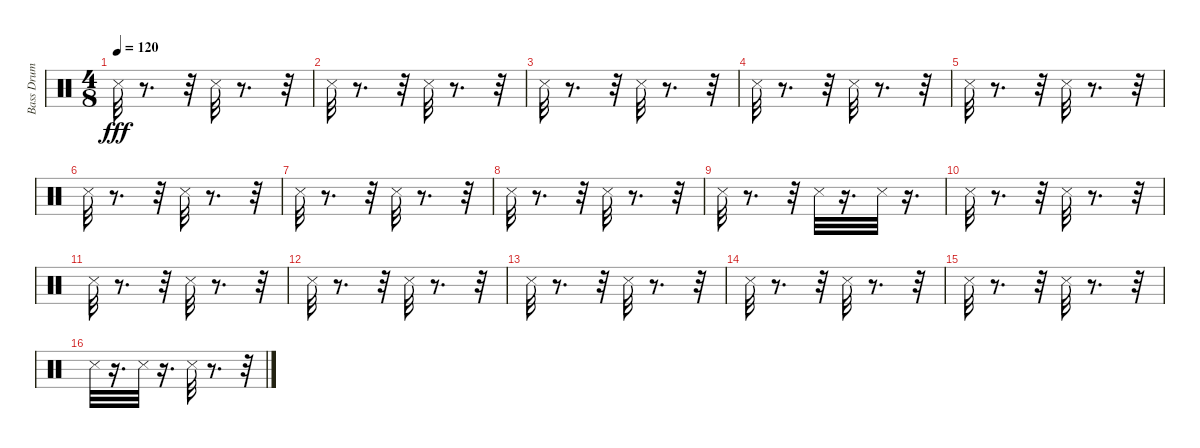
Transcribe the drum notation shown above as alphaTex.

\track ("Bass Drum" "Bass Drum") {instrument percussion}
\staff {score}
\articulation defaults
\ts (4 8)
\tempo 120
\clef neutral
\ks c "Metronome (hit)".32{dy fff}
r.8{d} r.32 "Metronome (hit)".32 r.8{d} r.32 |
"Metronome (hit)".32 r.8{d} r.32 "Metronome (hit)".32 r.8{d} r.32 |
"Metronome (hit)".32 r.8{d} r.32 "Metronome (hit)".32 r.8{d} r.32 |
"Metronome (hit)".32 r.8{d} r.32 "Metronome (hit)".32 r.8{d} r.32 |
"Metronome (hit)".32 r.8{d} r.32 "Metronome (hit)".32 r.8{d} r.32 |
"Metronome (hit)".32 r.8{d} r.32 "Metronome (hit)".32 r.8{d} r.32 |
"Metronome (hit)".32 r.8{d} r.32 "Metronome (hit)".32 r.8{d} r.32 |
"Metronome (hit)".32 r.8{d} r.32 "Metronome (hit)".32 r.8{d} r.32 |
"Metronome (hit)".32 r.8{d} r.32 "Metronome (hit)".32 r.16{d} "Metronome (hit)".32 r.16{d} |
"Metronome (hit)".32 r.8{d} r.32 "Metronome (hit)".32 r.8{d} r.32 |
"Metronome (hit)".32 r.8{d} r.32 "Metronome (hit)".32 r.8{d} r.32 |
"Metronome (hit)".32 r.8{d} r.32 "Metronome (hit)".32 r.8{d} r.32 |
"Metronome (hit)".32 r.8{d} r.32 "Metronome (hit)".32 r.8{d} r.32 |
"Metronome (hit)".32 r.8{d} r.32 "Metronome (hit)".32 r.8{d} r.32 |
"Metronome (hit)".32 r.8{d} r.32 "Metronome (hit)".32 r.8{d} r.32 |
"Metronome (hit)".32 r.16{d} "Metronome (hit)".32 r.16{d} "Metronome (hit)".32 r.8{d} r.32
